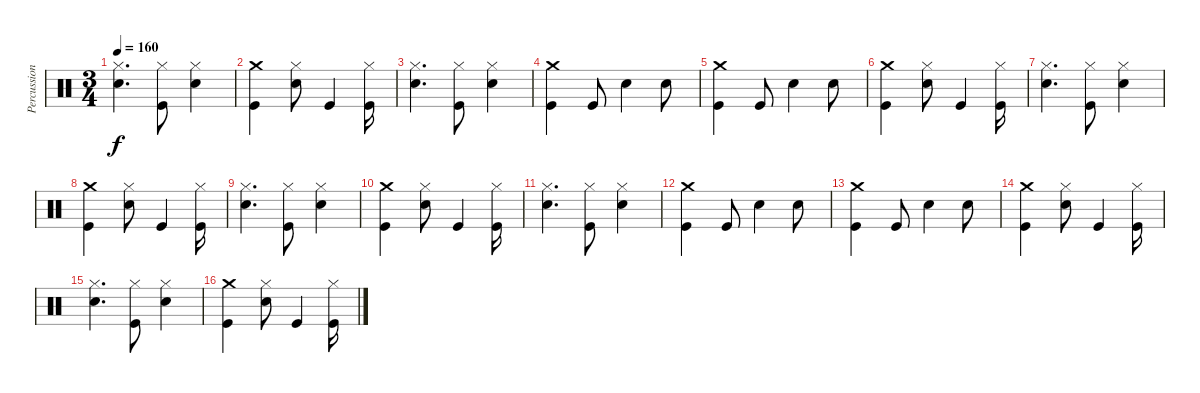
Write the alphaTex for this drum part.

\track ("Percussion" "Percussion") {instrument percussion}
\staff {score}
\articulation defaults
\ts (3 4)
\tempo 160
\clef neutral
\ks c
("Hi-Hat (closed)" "Snare (hit) 2").4{d dy f} ("Hi-Hat (closed)" "Kick (hit)").8 ("Hi-Hat (closed)" "Snare (hit) 2").4 |
("Crash medium (hit)" "Kick (hit)").4 ("Hi-Hat (closed)" "Snare (hit) 2").8 "Kick (hit)".4 ("Hi-Hat (closed)" "Kick (hit)").16 |
("Hi-Hat (closed)" "Snare (hit) 2").4{d} ("Hi-Hat (closed)" "Kick (hit)").8 ("Hi-Hat (closed)" "Snare (hit) 2").4 |
("Crash medium (hit)" "Kick (hit)").4 "Kick (hit)".8 "Snare (hit) 2".4 "Snare (hit) 2".8 |
("Crash medium (hit)" "Kick (hit)").4 "Kick (hit)".8 "Snare (hit) 2".4 "Snare (hit) 2".8 |
("Crash medium (hit)" "Kick (hit)").4 ("Hi-Hat (closed)" "Snare (hit) 2").8 "Kick (hit)".4 ("Hi-Hat (closed)" "Kick (hit)").16 |
("Hi-Hat (closed)" "Snare (hit) 2").4{d} ("Hi-Hat (closed)" "Kick (hit)").8 ("Hi-Hat (closed)" "Snare (hit) 2").4 |
("Crash medium (hit)" "Kick (hit)").4 ("Hi-Hat (closed)" "Snare (hit) 2").8 "Kick (hit)".4 ("Hi-Hat (closed)" "Kick (hit)").16 |
("Hi-Hat (closed)" "Snare (hit) 2").4{d} ("Hi-Hat (closed)" "Kick (hit)").8 ("Hi-Hat (closed)" "Snare (hit) 2").4 |
("Crash medium (hit)" "Kick (hit)").4 ("Hi-Hat (closed)" "Snare (hit) 2").8 "Kick (hit)".4 ("Hi-Hat (closed)" "Kick (hit)").16 |
("Hi-Hat (closed)" "Snare (hit) 2").4{d} ("Hi-Hat (closed)" "Kick (hit)").8 ("Hi-Hat (closed)" "Snare (hit) 2").4 |
("Crash medium (hit)" "Kick (hit)").4 "Kick (hit)".8 "Snare (hit) 2".4 "Snare (hit) 2".8 |
("Crash medium (hit)" "Kick (hit)").4 "Kick (hit)".8 "Snare (hit) 2".4 "Snare (hit) 2".8 |
("Crash medium (hit)" "Kick (hit)").4 ("Hi-Hat (closed)" "Snare (hit) 2").8 "Kick (hit)".4 ("Hi-Hat (closed)" "Kick (hit)").16 |
("Hi-Hat (closed)" "Snare (hit) 2").4{d} ("Hi-Hat (closed)" "Kick (hit)").8 ("Hi-Hat (closed)" "Snare (hit) 2").4 |
("Crash medium (hit)" "Kick (hit)").4 ("Hi-Hat (closed)" "Snare (hit) 2").8 "Kick (hit)".4 ("Hi-Hat (closed)" "Kick (hit)").16
